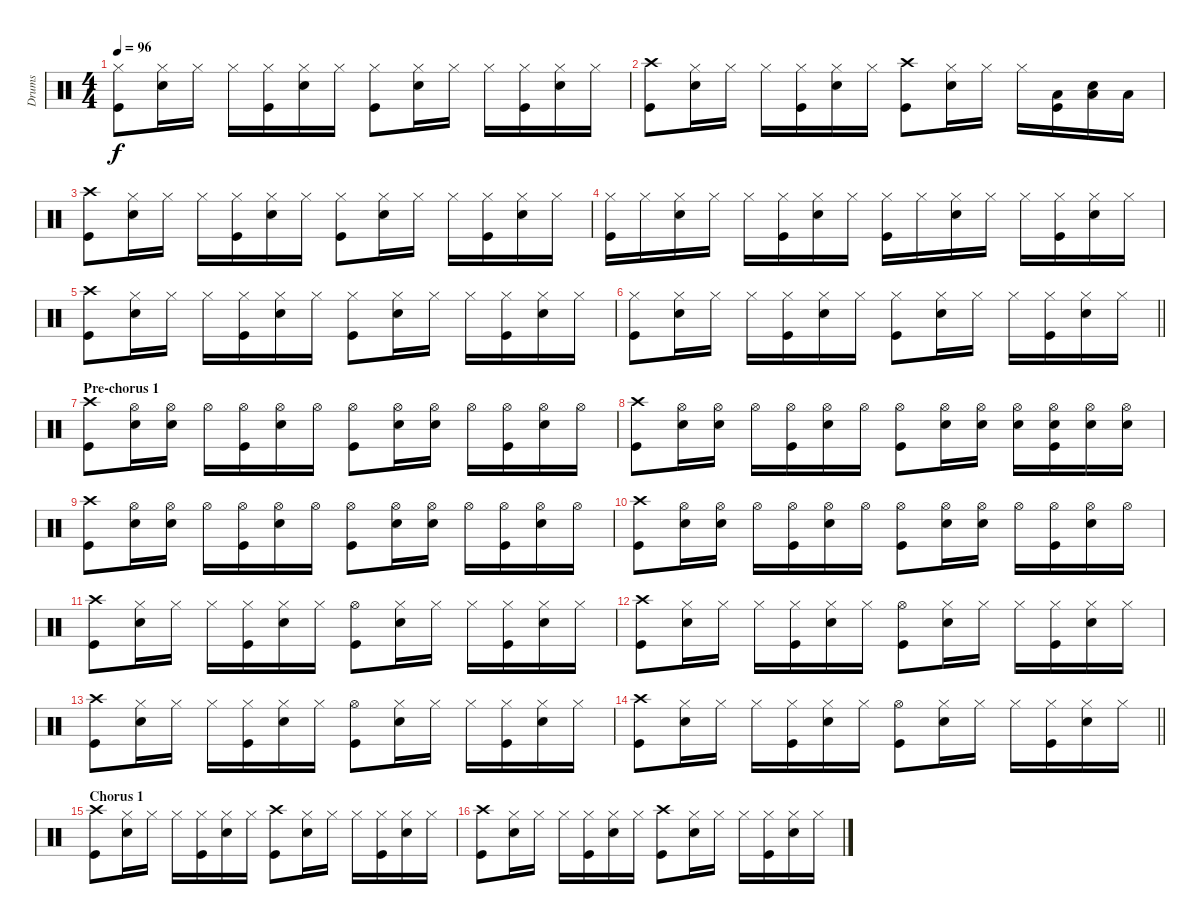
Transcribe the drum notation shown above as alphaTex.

\track ("Drums" "Drums") {instrument percussion}
\staff {score}
\articulation defaults
\ts (4 4)
\tempo 96
\clef neutral
\ks c
("Hi-Hat (closed)" "Kick (hit)").8{dy f} ("Hi-Hat (closed)" "Snare (hit) 2").16 "Hi-Hat (closed)".16 "Hi-Hat (closed)".16 ("Hi-Hat (closed)" "Kick (hit)").16 ("Hi-Hat (closed)" "Snare (hit) 2").16 "Hi-Hat (closed)".16 ("Hi-Hat (closed)" "Kick (hit)").8 ("Hi-Hat (closed)" "Snare (hit) 2").16 "Hi-Hat (closed)".16 "Hi-Hat (closed)".16 ("Hi-Hat (closed)" "Kick (hit)").16 ("Hi-Hat (closed)" "Snare (hit) 2").16 "Hi-Hat (closed)".16 |
("Crash high (hit)" "Kick (hit)").8 ("Hi-Hat (closed)" "Snare (hit) 2").16 "Hi-Hat (closed)".16 "Hi-Hat (closed)".16 ("Hi-Hat (closed)" "Kick (hit)").16 ("Hi-Hat (closed)" "Snare (hit) 2").16 "Hi-Hat (closed)".16 ("Crash high (hit)" "Kick (hit)").8 ("Hi-Hat (closed)" "Snare (hit) 2").16 "Hi-Hat (closed)".16 "Hi-Hat (closed)".16 ("Low Tom (hit)" "Kick (hit)").16 ("Low Tom (hit)" "Snare (hit) 2").16 "Low Tom (hit)".16 |
("Crash high (hit)" "Kick (hit)").8 ("Hi-Hat (closed)" "Snare (hit) 2").16 "Hi-Hat (closed)".16 "Hi-Hat (closed)".16 ("Hi-Hat (closed)" "Kick (hit)").16 ("Hi-Hat (closed)" "Snare (hit) 2").16 "Hi-Hat (closed)".16 ("Hi-Hat (closed)" "Kick (hit)").8 ("Hi-Hat (closed)" "Snare (hit) 2").16 "Hi-Hat (closed)".16 "Hi-Hat (closed)".16 ("Hi-Hat (closed)" "Kick (hit)").16 ("Hi-Hat (closed)" "Snare (hit) 2").16 "Hi-Hat (closed)".16 |
("Hi-Hat (closed)" "Kick (hit)").16 "Hi-Hat (closed)".16 ("Hi-Hat (closed)" "Snare (hit) 2").16 "Hi-Hat (closed)".16 "Hi-Hat (closed)".16 ("Hi-Hat (closed)" "Kick (hit)").16 ("Hi-Hat (closed)" "Snare (hit) 2").16 "Hi-Hat (closed)".16 ("Hi-Hat (closed)" "Kick (hit)").16 "Hi-Hat (closed)".16 ("Hi-Hat (closed)" "Snare (hit) 2").16 "Hi-Hat (closed)".16 "Hi-Hat (closed)".16 ("Hi-Hat (closed)" "Kick (hit)").16 ("Hi-Hat (closed)" "Snare (hit) 2").16 "Hi-Hat (closed)".16 |
("Crash high (hit)" "Kick (hit)").8 ("Hi-Hat (closed)" "Snare (hit) 2").16 "Hi-Hat (closed)".16 "Hi-Hat (closed)".16 ("Hi-Hat (closed)" "Kick (hit)").16 ("Hi-Hat (closed)" "Snare (hit) 2").16 "Hi-Hat (closed)".16 ("Hi-Hat (closed)" "Kick (hit)").8 ("Hi-Hat (closed)" "Snare (hit) 2").16 "Hi-Hat (closed)".16 "Hi-Hat (closed)".16 ("Hi-Hat (closed)" "Kick (hit)").16 ("Hi-Hat (closed)" "Snare (hit) 2").16 "Hi-Hat (closed)".16 |
\barLineRight lightlight
("Hi-Hat (closed)" "Kick (hit)").8 ("Hi-Hat (closed)" "Snare (hit) 2").16 "Hi-Hat (closed)".16 "Hi-Hat (closed)".16 ("Hi-Hat (closed)" "Kick (hit)").16 ("Hi-Hat (closed)" "Snare (hit) 2").16 "Hi-Hat (closed)".16 ("Hi-Hat (closed)" "Kick (hit)").8 ("Hi-Hat (closed)" "Snare (hit) 2").16 "Hi-Hat (closed)".16 "Hi-Hat (closed)".16 ("Hi-Hat (closed)" "Kick (hit)").16 ("Hi-Hat (closed)" "Snare (hit) 2").16 "Hi-Hat (closed)".16 |
\section ("" "Pre-chorus 1")
("Crash high (hit)" "Kick (hit)").8 ("Hi-Hat (open)" "Snare (hit) 2").16 ("Hi-Hat (open)" "Snare (hit) 2").16 "Hi-Hat (open)".16 ("Hi-Hat (open)" "Kick (hit)").16 ("Hi-Hat (open)" "Snare (hit) 2").16 "Hi-Hat (open)".16 ("Hi-Hat (open)" "Kick (hit)").8 ("Hi-Hat (open)" "Snare (hit) 2").16 ("Hi-Hat (open)" "Snare (hit) 2").16 "Hi-Hat (open)".16 ("Hi-Hat (open)" "Kick (hit)").16 ("Hi-Hat (open)" "Snare (hit) 2").16 "Hi-Hat (open)".16 |
("Crash high (hit)" "Kick (hit)").8 ("Hi-Hat (open)" "Snare (hit) 2").16 ("Hi-Hat (open)" "Snare (hit) 2").16 "Hi-Hat (open)".16 ("Hi-Hat (open)" "Kick (hit)").16 ("Hi-Hat (open)" "Snare (hit) 2").16 "Hi-Hat (open)".16 ("Hi-Hat (open)" "Kick (hit)").8 ("Hi-Hat (open)" "Snare (hit) 2").16 ("Hi-Hat (open)" "Snare (hit) 2").16 ("Hi-Hat (open)" "Snare (hit) 2").16 ("Hi-Hat (open)" "Snare (hit) 2" "Kick (hit)").16 ("Hi-Hat (open)" "Snare (hit) 2").16 ("Hi-Hat (open)" "Snare (hit) 2").16 |
("Crash high (hit)" "Kick (hit)").8 ("Hi-Hat (open)" "Snare (hit) 2").16 ("Hi-Hat (open)" "Snare (hit) 2").16 "Hi-Hat (open)".16 ("Hi-Hat (open)" "Kick (hit)").16 ("Hi-Hat (open)" "Snare (hit) 2").16 "Hi-Hat (open)".16 ("Hi-Hat (open)" "Kick (hit)").8 ("Hi-Hat (open)" "Snare (hit) 2").16 ("Hi-Hat (open)" "Snare (hit) 2").16 "Hi-Hat (open)".16 ("Hi-Hat (open)" "Kick (hit)").16 ("Hi-Hat (open)" "Snare (hit) 2").16 "Hi-Hat (open)".16 |
("Crash high (hit)" "Kick (hit)").8 ("Hi-Hat (open)" "Snare (hit) 2").16 ("Hi-Hat (open)" "Snare (hit) 2").16 "Hi-Hat (open)".16 ("Hi-Hat (open)" "Kick (hit)").16 ("Hi-Hat (open)" "Snare (hit) 2").16 "Hi-Hat (open)".16 ("Hi-Hat (open)" "Kick (hit)").8 ("Hi-Hat (open)" "Snare (hit) 2").16 ("Hi-Hat (open)" "Snare (hit) 2").16 "Hi-Hat (open)".16 ("Hi-Hat (open)" "Kick (hit)").16 ("Hi-Hat (open)" "Snare (hit) 2").16 "Hi-Hat (open)".16 |
("Crash high (hit)" "Kick (hit)").8 ("Hi-Hat (closed)" "Snare (hit) 2").16 "Hi-Hat (closed)".16 "Hi-Hat (closed)".16 ("Hi-Hat (closed)" "Kick (hit)").16 ("Hi-Hat (closed)" "Snare (hit) 2").16 "Hi-Hat (closed)".16 ("Hi-Hat (open)" "Kick (hit)").8 ("Hi-Hat (closed)" "Snare (hit) 2").16 "Hi-Hat (closed)".16 "Hi-Hat (closed)".16 ("Hi-Hat (closed)" "Kick (hit)").16 ("Hi-Hat (closed)" "Snare (hit) 2").16 "Hi-Hat (closed)".16 |
("Crash high (hit)" "Kick (hit)").8 ("Hi-Hat (closed)" "Snare (hit) 2").16 "Hi-Hat (closed)".16 "Hi-Hat (closed)".16 ("Hi-Hat (closed)" "Kick (hit)").16 ("Hi-Hat (closed)" "Snare (hit) 2").16 "Hi-Hat (closed)".16 ("Hi-Hat (open)" "Kick (hit)").8 ("Hi-Hat (closed)" "Snare (hit) 2").16 "Hi-Hat (closed)".16 "Hi-Hat (closed)".16 ("Hi-Hat (closed)" "Kick (hit)").16 ("Hi-Hat (closed)" "Snare (hit) 2").16 "Hi-Hat (closed)".16 |
("Crash high (hit)" "Kick (hit)").8 ("Hi-Hat (closed)" "Snare (hit) 2").16 "Hi-Hat (closed)".16 "Hi-Hat (closed)".16 ("Hi-Hat (closed)" "Kick (hit)").16 ("Hi-Hat (closed)" "Snare (hit) 2").16 "Hi-Hat (closed)".16 ("Hi-Hat (open)" "Kick (hit)").8 ("Hi-Hat (closed)" "Snare (hit) 2").16 "Hi-Hat (closed)".16 "Hi-Hat (closed)".16 ("Hi-Hat (closed)" "Kick (hit)").16 ("Hi-Hat (closed)" "Snare (hit) 2").16 "Hi-Hat (closed)".16 |
\barLineRight lightlight
("Crash high (hit)" "Kick (hit)").8 ("Hi-Hat (closed)" "Snare (hit) 2").16 "Hi-Hat (closed)".16 "Hi-Hat (closed)".16 ("Hi-Hat (closed)" "Kick (hit)").16 ("Hi-Hat (closed)" "Snare (hit) 2").16 "Hi-Hat (closed)".16 ("Hi-Hat (open)" "Kick (hit)").8 ("Hi-Hat (closed)" "Snare (hit) 2").16 "Hi-Hat (closed)".16 "Hi-Hat (closed)".16 ("Hi-Hat (closed)" "Kick (hit)").16 ("Hi-Hat (closed)" "Snare (hit) 2").16 "Hi-Hat (closed)".16 |
\section ("" "Chorus 1")
("Crash high (hit)" "Kick (hit)").8 ("Hi-Hat (closed)" "Snare (hit) 2").16 "Hi-Hat (closed)".16 "Hi-Hat (closed)".16 ("Hi-Hat (closed)" "Kick (hit)").16 ("Hi-Hat (closed)" "Snare (hit) 2").16 "Hi-Hat (closed)".16 ("Crash high (hit)" "Kick (hit)").8 ("Hi-Hat (closed)" "Snare (hit) 2").16 "Hi-Hat (closed)".16 "Hi-Hat (closed)".16 ("Hi-Hat (closed)" "Kick (hit)").16 ("Hi-Hat (closed)" "Snare (hit) 2").16 "Hi-Hat (closed)".16 |
("Crash high (hit)" "Kick (hit)").8 ("Hi-Hat (closed)" "Snare (hit) 2").16 "Hi-Hat (closed)".16 "Hi-Hat (closed)".16 ("Hi-Hat (closed)" "Kick (hit)").16 ("Hi-Hat (closed)" "Snare (hit) 2").16 "Hi-Hat (closed)".16 ("Crash high (hit)" "Kick (hit)").8 ("Hi-Hat (closed)" "Snare (hit) 2").16 "Hi-Hat (closed)".16 "Hi-Hat (closed)".16 ("Hi-Hat (closed)" "Kick (hit)").16 ("Hi-Hat (closed)" "Snare (hit) 2").16 "Hi-Hat (closed)".16
